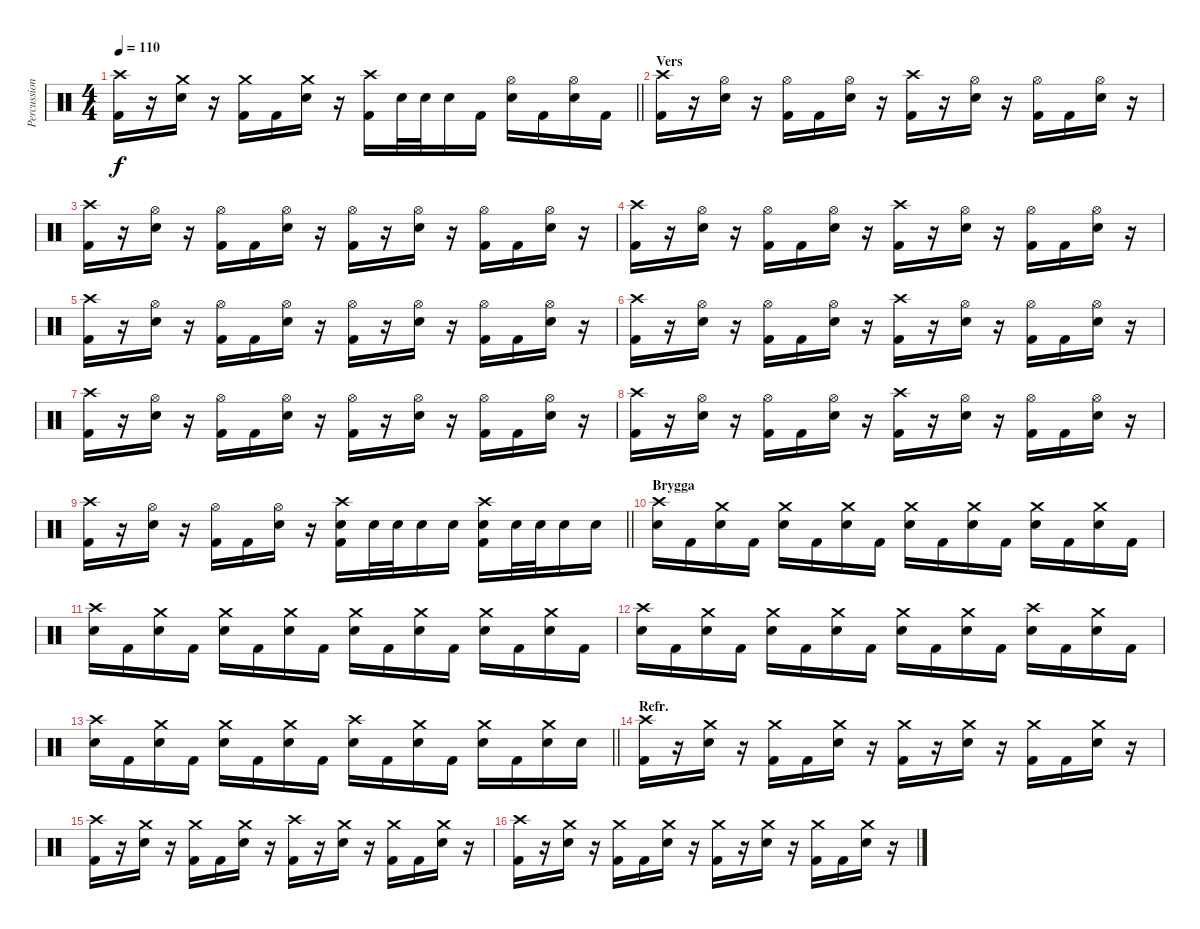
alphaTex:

\track ("Percussion" "Percussion") {instrument percussion}
\staff {score}
\articulation defaults
\ts (4 4)
\tempo 110
\clef neutral
\barLineRight lightlight
\ks c
("Crash high (hit)" "Kick (hit) 2").16{dy f} r.16 ("Crash medium (hit)" "Snare (hit) 2").16 r.16 ("Crash medium (hit)" "Kick (hit) 2").16 "Kick (hit) 2".16 ("Crash medium (hit)" "Snare (hit) 2").16 r.16 ("Crash high (hit)" "Kick (hit) 2").16 "Snare (hit) 2".32 "Snare (hit) 2".32 "Snare (hit) 2".16 "Kick (hit) 2".16 ("Hi-Hat (open)" "Snare (hit) 2").16 "Kick (hit) 2".16 ("Hi-Hat (open)" "Snare (hit) 2").16 "Kick (hit) 2".16 |
\section ("" "Vers")
("Crash high (hit)" "Kick (hit) 2").16 r.16 ("Hi-Hat (open)" "Snare (hit) 2").16 r.16 ("Hi-Hat (open)" "Kick (hit) 2").16 "Kick (hit) 2".16 ("Hi-Hat (open)" "Snare (hit) 2").16 r.16 ("Crash high (hit)" "Kick (hit) 2").16 r.16 ("Hi-Hat (open)" "Snare (hit) 2").16 r.16 ("Hi-Hat (open)" "Kick (hit) 2").16 "Kick (hit) 2".16 ("Hi-Hat (open)" "Snare (hit) 2").16 r.16 |
("Crash high (hit)" "Kick (hit) 2").16 r.16 ("Hi-Hat (open)" "Snare (hit) 2").16 r.16 ("Hi-Hat (open)" "Kick (hit) 2").16 "Kick (hit) 2".16 ("Hi-Hat (open)" "Snare (hit) 2").16 r.16 ("Hi-Hat (open)" "Kick (hit) 2").16 r.16 ("Hi-Hat (open)" "Snare (hit) 2").16 r.16 ("Hi-Hat (open)" "Kick (hit) 2").16 "Kick (hit) 2".16 ("Hi-Hat (open)" "Snare (hit) 2").16 r.16 |
("Crash high (hit)" "Kick (hit) 2").16 r.16 ("Hi-Hat (open)" "Snare (hit) 2").16 r.16 ("Hi-Hat (open)" "Kick (hit) 2").16 "Kick (hit) 2".16 ("Hi-Hat (open)" "Snare (hit) 2").16 r.16 ("Crash high (hit)" "Kick (hit) 2").16 r.16 ("Hi-Hat (open)" "Snare (hit) 2").16 r.16 ("Hi-Hat (open)" "Kick (hit) 2").16 "Kick (hit) 2".16 ("Hi-Hat (open)" "Snare (hit) 2").16 r.16 |
("Crash high (hit)" "Kick (hit) 2").16 r.16 ("Hi-Hat (open)" "Snare (hit) 2").16 r.16 ("Hi-Hat (open)" "Kick (hit) 2").16 "Kick (hit) 2".16 ("Hi-Hat (open)" "Snare (hit) 2").16 r.16 ("Hi-Hat (open)" "Kick (hit) 2").16 r.16 ("Hi-Hat (open)" "Snare (hit) 2").16 r.16 ("Hi-Hat (open)" "Kick (hit) 2").16 "Kick (hit) 2".16 ("Hi-Hat (open)" "Snare (hit) 2").16 r.16 |
("Crash high (hit)" "Kick (hit) 2").16 r.16 ("Hi-Hat (open)" "Snare (hit) 2").16 r.16 ("Hi-Hat (open)" "Kick (hit) 2").16 "Kick (hit) 2".16 ("Hi-Hat (open)" "Snare (hit) 2").16 r.16 ("Crash high (hit)" "Kick (hit) 2").16 r.16 ("Hi-Hat (open)" "Snare (hit) 2").16 r.16 ("Hi-Hat (open)" "Kick (hit) 2").16 "Kick (hit) 2".16 ("Hi-Hat (open)" "Snare (hit) 2").16 r.16 |
("Crash high (hit)" "Kick (hit) 2").16 r.16 ("Hi-Hat (open)" "Snare (hit) 2").16 r.16 ("Hi-Hat (open)" "Kick (hit) 2").16 "Kick (hit) 2".16 ("Hi-Hat (open)" "Snare (hit) 2").16 r.16 ("Hi-Hat (open)" "Kick (hit) 2").16 r.16 ("Hi-Hat (open)" "Snare (hit) 2").16 r.16 ("Hi-Hat (open)" "Kick (hit) 2").16 "Kick (hit) 2".16 ("Hi-Hat (open)" "Snare (hit) 2").16 r.16 |
("Crash high (hit)" "Kick (hit) 2").16 r.16 ("Hi-Hat (open)" "Snare (hit) 2").16 r.16 ("Hi-Hat (open)" "Kick (hit) 2").16 "Kick (hit) 2".16 ("Hi-Hat (open)" "Snare (hit) 2").16 r.16 ("Crash high (hit)" "Kick (hit) 2").16 r.16 ("Hi-Hat (open)" "Snare (hit) 2").16 r.16 ("Hi-Hat (open)" "Kick (hit) 2").16 "Kick (hit) 2".16 ("Hi-Hat (open)" "Snare (hit) 2").16 r.16 |
\barLineRight lightlight
("Crash high (hit)" "Kick (hit) 2").16 r.16 ("Hi-Hat (open)" "Snare (hit) 2").16 r.16 ("Hi-Hat (open)" "Kick (hit) 2").16 "Kick (hit) 2".16 ("Hi-Hat (open)" "Snare (hit) 2").16 r.16 ("Crash high (hit)" "Kick (hit) 2" "Snare (hit) 2").16 "Snare (hit) 2".32 "Snare (hit) 2".32 "Snare (hit) 2".16 "Snare (hit) 2".16 ("Crash high (hit)" "Kick (hit) 2" "Snare (hit) 2").16 "Snare (hit) 2".32 "Snare (hit) 2".32 "Snare (hit) 2".16 "Snare (hit) 2".16 |
\section ("" "Brygga")
("Crash high (hit)" "Snare (hit) 2").16 "Kick (hit) 2".16 ("Crash medium (hit)" "Snare (hit) 2").16 "Kick (hit) 2".16 ("Crash medium (hit)" "Snare (hit) 2").16 "Kick (hit) 2".16 ("Crash medium (hit)" "Snare (hit) 2").16 "Kick (hit) 2".16 ("Crash medium (hit)" "Snare (hit) 2").16 "Kick (hit) 2".16 ("Crash medium (hit)" "Snare (hit) 2").16 "Kick (hit) 2".16 ("Crash medium (hit)" "Snare (hit) 2").16 "Kick (hit) 2".16 ("Crash medium (hit)" "Snare (hit) 2").16 "Kick (hit) 2".16 |
("Crash high (hit)" "Snare (hit) 2").16 "Kick (hit) 2".16 ("Crash medium (hit)" "Snare (hit) 2").16 "Kick (hit) 2".16 ("Crash medium (hit)" "Snare (hit) 2").16 "Kick (hit) 2".16 ("Crash medium (hit)" "Snare (hit) 2").16 "Kick (hit) 2".16 ("Crash medium (hit)" "Snare (hit) 2").16 "Kick (hit) 2".16 ("Crash medium (hit)" "Snare (hit) 2").16 "Kick (hit) 2".16 ("Crash medium (hit)" "Snare (hit) 2").16 "Kick (hit) 2".16 ("Crash medium (hit)" "Snare (hit) 2").16 "Kick (hit) 2".16 |
("Crash high (hit)" "Snare (hit) 2").16 "Kick (hit) 2".16 ("Crash medium (hit)" "Snare (hit) 2").16 "Kick (hit) 2".16 ("Crash medium (hit)" "Snare (hit) 2").16 "Kick (hit) 2".16 ("Crash medium (hit)" "Snare (hit) 2").16 "Kick (hit) 2".16 ("Crash medium (hit)" "Snare (hit) 2").16 "Kick (hit) 2".16 ("Crash medium (hit)" "Snare (hit) 2").16 "Kick (hit) 2".16 ("Crash high (hit)" "Snare (hit) 2").16 "Kick (hit) 2".16 ("Crash medium (hit)" "Snare (hit) 2").16 "Kick (hit) 2".16 |
\barLineRight lightlight
("Crash high (hit)" "Snare (hit) 2").16 "Kick (hit) 2".16 ("Crash medium (hit)" "Snare (hit) 2").16 "Kick (hit) 2".16 ("Crash medium (hit)" "Snare (hit) 2").16 "Kick (hit) 2".16 ("Crash medium (hit)" "Snare (hit) 2").16 "Kick (hit) 2".16 ("Crash high (hit)" "Snare (hit) 2").16 "Kick (hit) 2".16 ("Crash medium (hit)" "Snare (hit) 2").16 "Kick (hit) 2".16 ("Crash medium (hit)" "Snare (hit) 2").16 "Kick (hit) 2".16 ("Crash medium (hit)" "Snare (hit) 2").16 "Snare (hit) 2".16 |
\section ("" "Refr.")
("Crash high (hit)" "Kick (hit) 2").16 r.16 ("Crash medium (hit)" "Snare (hit) 2").16 r.16 ("Crash medium (hit)" "Kick (hit) 2").16 "Kick (hit) 2".16 ("Crash medium (hit)" "Snare (hit) 2").16 r.16 ("Crash medium (hit)" "Kick (hit) 2").16 r.16 ("Crash medium (hit)" "Snare (hit) 2").16 r.16 ("Crash medium (hit)" "Kick (hit) 2").16 "Kick (hit) 2".16 ("Crash medium (hit)" "Snare (hit) 2").16 r.16 |
("Crash high (hit)" "Kick (hit) 2").16 r.16 ("Crash medium (hit)" "Snare (hit) 2").16 r.16 ("Crash medium (hit)" "Kick (hit) 2").16 "Kick (hit) 2".16 ("Crash medium (hit)" "Snare (hit) 2").16 r.16 ("Crash high (hit)" "Kick (hit) 2").16 r.16 ("Crash medium (hit)" "Snare (hit) 2").16 r.16 ("Crash medium (hit)" "Kick (hit) 2").16 "Kick (hit) 2".16 ("Crash medium (hit)" "Snare (hit) 2").16 r.16 |
("Crash high (hit)" "Kick (hit) 2").16 r.16 ("Crash medium (hit)" "Snare (hit) 2").16 r.16 ("Crash medium (hit)" "Kick (hit) 2").16 "Kick (hit) 2".16 ("Crash medium (hit)" "Snare (hit) 2").16 r.16 ("Crash medium (hit)" "Kick (hit) 2").16 r.16 ("Crash medium (hit)" "Snare (hit) 2").16 r.16 ("Crash medium (hit)" "Kick (hit) 2").16 "Kick (hit) 2".16 ("Crash medium (hit)" "Snare (hit) 2").16 r.16
